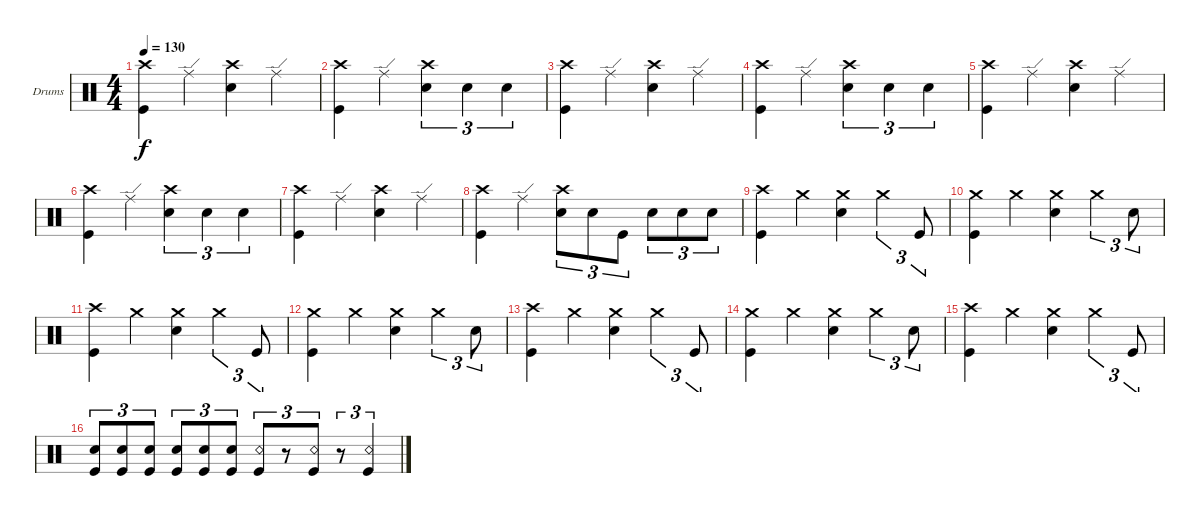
\defaultSystemsLayout 4
\bracketExtendMode groupsimilarinstruments
\firstSystemTrackNameOrientation horizontal
\otherSystemsTrackNameOrientation horizontal
\track ("Drumkit" "Drums") {instrument percussion}
\staff {score}
\articulation defaults
\ts (4 4)
\tempo 130
\clef neutral
\ks c
("Kick (hit)" "Crash high (hit)").4{dy f} "Ride (edge)".4 ("Crash high (hit)" "Snare (hit) 2").4 "Ride (edge)".4 |
("Kick (hit)" "Crash high (hit)").4 "Ride (edge)".4 ("Snare (hit) 2" "Crash high (hit)").4{tu (3 2)} "Snare (hit) 2".4{tu (3 2)} "Snare (hit) 2".4{tu (3 2)} |
("Kick (hit)" "Crash high (hit)").4 "Ride (edge)".4 ("Crash high (hit)" "Snare (hit) 2").4 "Ride (edge)".4 |
("Kick (hit)" "Crash high (hit)").4 "Ride (edge)".4 ("Snare (hit) 2" "Crash high (hit)").4{tu (3 2)} "Snare (hit) 2".4{tu (3 2)} "Snare (hit) 2".4{tu (3 2)} |
("Kick (hit)" "Crash high (hit)").4 "Ride (edge)".4 ("Crash high (hit)" "Snare (hit) 2").4 "Ride (edge)".4 |
("Kick (hit)" "Crash high (hit)").4 "Ride (edge)".4 ("Snare (hit) 2" "Crash high (hit)").4{tu (3 2)} "Snare (hit) 2".4{tu (3 2)} "Snare (hit) 2".4{tu (3 2)} |
("Kick (hit)" "Crash high (hit)").4 "Ride (edge)".4 ("Crash high (hit)" "Snare (hit) 2").4 "Ride (edge)".4 |
("Kick (hit)" "Crash high (hit)").4 "Ride (edge)".4 ("Snare (hit) 2" "Crash high (hit)").8{tu (3 2)} "Snare (hit) 2".8{tu (3 2)} "Kick (hit)".8{tu (3 2)} "Snare (hit) 2".8{tu (3 2)} "Snare (hit) 2".8{tu (3 2)} "Snare (hit) 2".8{tu (3 2)} |
("Kick (hit)" "Crash high (hit)").4 "Crash medium (hit)".4 ("Snare (hit) 2" "Crash medium (hit)").4 "Crash medium (hit)".4{tu (3 2)} "Kick (hit)".8{tu (3 2)} |
("Kick (hit)" "Crash medium (hit)").4 "Crash medium (hit)".4 ("Snare (hit) 2" "Crash medium (hit)").4 "Crash medium (hit)".4{tu (3 2)} "Snare (hit) 2".8{tu (3 2)} |
("Kick (hit)" "Crash high (hit)").4 "Crash medium (hit)".4 ("Snare (hit) 2" "Crash medium (hit)").4 "Crash medium (hit)".4{tu (3 2)} "Kick (hit)".8{tu (3 2)} |
("Kick (hit)" "Crash medium (hit)").4 "Crash medium (hit)".4 ("Snare (hit) 2" "Crash medium (hit)").4 "Crash medium (hit)".4{tu (3 2)} "Snare (hit) 2".8{tu (3 2)} |
("Kick (hit)" "Crash high (hit)").4 "Crash medium (hit)".4 ("Snare (hit) 2" "Crash medium (hit)").4 "Crash medium (hit)".4{tu (3 2)} "Kick (hit)".8{tu (3 2)} |
("Kick (hit)" "Crash medium (hit)").4 "Crash medium (hit)".4 ("Snare (hit) 2" "Crash medium (hit)").4 "Crash medium (hit)".4{tu (3 2)} "Snare (hit) 2".8{tu (3 2)} |
("Kick (hit)" "Crash high (hit)").4 "Crash medium (hit)".4 ("Snare (hit) 2" "Crash medium (hit)").4 "Crash medium (hit)".4{tu (3 2)} "Kick (hit)".8{tu (3 2)} |
("Kick (hit)" "Snare (hit) 2").8{tu (3 2)} ("Kick (hit)" "Snare (hit) 2").8{tu (3 2)} ("Kick (hit)" "Snare (hit) 2").8{tu (3 2)} ("Kick (hit)" "Snare (hit) 2").8{tu (3 2)} ("Kick (hit)" "Snare (hit) 2").8{tu (3 2)} ("Kick (hit)" "Snare (hit) 2").8{tu (3 2)} ("Kick (hit)" "Snare (rim shot)").8{tu (3 2)} r.8{tu (3 2)} ("Kick (hit)" "Snare (rim shot)").8{tu (3 2)} r.8{tu (3 2)} ("Kick (hit)" "Snare (rim shot)").4{tu (3 2)}
